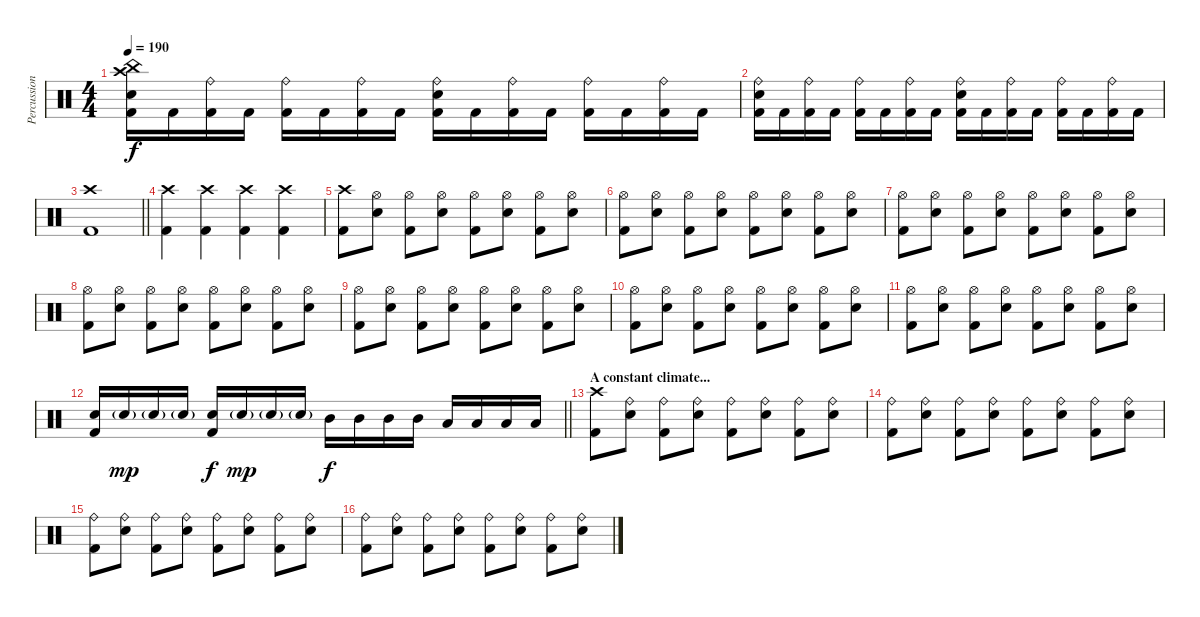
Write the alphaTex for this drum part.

\track ("Percussion" "Percussion") {instrument percussion}
\staff {score}
\articulation defaults
\ts (4 4)
\tempo 190
\clef neutral
\ks c
("China (hit)" "Crash high (hit)" "Snare (hit) 2" "Kick (hit) 2").16{dy f} "Kick (hit) 2".16 ("Ride (bell)" "Kick (hit) 2").16 "Kick (hit) 2".16 ("Ride (bell)" "Kick (hit) 2").16 "Kick (hit) 2".16 ("Ride (bell)" "Kick (hit) 2").16 "Kick (hit) 2".16 ("Ride (bell)" "Snare (hit) 2" "Kick (hit) 2").16 "Kick (hit) 2".16 ("Ride (bell)" "Kick (hit) 2").16 "Kick (hit) 2".16 ("Ride (bell)" "Kick (hit) 2").16 "Kick (hit) 2".16 ("Ride (bell)" "Kick (hit) 2").16 "Kick (hit) 2".16 |
("Ride (bell)" "Snare (hit) 2" "Kick (hit) 2").16 "Kick (hit) 2".16 ("Ride (bell)" "Kick (hit) 2").16 "Kick (hit) 2".16 ("Ride (bell)" "Kick (hit) 2").16 "Kick (hit) 2".16 ("Ride (bell)" "Kick (hit) 2").16 "Kick (hit) 2".16 ("Ride (bell)" "Snare (hit) 2" "Kick (hit) 2").16 "Kick (hit) 2".16 ("Ride (bell)" "Kick (hit) 2").16 "Kick (hit) 2".16 ("Ride (bell)" "Kick (hit) 2").16 "Kick (hit) 2".16 ("Ride (bell)" "Kick (hit) 2").16 "Kick (hit) 2".16 |
\barLineRight lightlight
("Crash high (hit)" "Kick (hit) 2").1 |
("Crash high (hit)" "Kick (hit) 2").4 ("Crash high (hit)" "Kick (hit) 2").4 ("Crash high (hit)" "Kick (hit) 2").4 ("Crash high (hit)" "Kick (hit) 2").4 |
("Crash high (hit)" "Kick (hit) 2").8 ("Hi-Hat (open)" "Snare (hit) 2").8 ("Hi-Hat (open)" "Kick (hit) 2").8 ("Hi-Hat (open)" "Snare (hit) 2").8 ("Hi-Hat (open)" "Kick (hit) 2").8 ("Hi-Hat (open)" "Snare (hit) 2").8 ("Hi-Hat (open)" "Kick (hit) 2").8 ("Hi-Hat (open)" "Snare (hit) 2").8 |
("Hi-Hat (open)" "Kick (hit) 2").8 ("Hi-Hat (open)" "Snare (hit) 2").8 ("Hi-Hat (open)" "Kick (hit) 2").8 ("Hi-Hat (open)" "Snare (hit) 2").8 ("Hi-Hat (open)" "Kick (hit) 2").8 ("Hi-Hat (open)" "Snare (hit) 2").8 ("Hi-Hat (open)" "Kick (hit) 2").8 ("Hi-Hat (open)" "Snare (hit) 2").8 |
("Hi-Hat (open)" "Kick (hit) 2").8 ("Hi-Hat (open)" "Snare (hit) 2").8 ("Hi-Hat (open)" "Kick (hit) 2").8 ("Hi-Hat (open)" "Snare (hit) 2").8 ("Hi-Hat (open)" "Kick (hit) 2").8 ("Hi-Hat (open)" "Snare (hit) 2").8 ("Hi-Hat (open)" "Kick (hit) 2").8 ("Hi-Hat (open)" "Snare (hit) 2").8 |
("Hi-Hat (open)" "Kick (hit) 2").8 ("Hi-Hat (open)" "Snare (hit) 2").8 ("Hi-Hat (open)" "Kick (hit) 2").8 ("Hi-Hat (open)" "Snare (hit) 2").8 ("Hi-Hat (open)" "Kick (hit) 2").8 ("Hi-Hat (open)" "Snare (hit) 2").8 ("Hi-Hat (open)" "Kick (hit) 2").8 ("Hi-Hat (open)" "Snare (hit) 2").8 |
("Hi-Hat (open)" "Kick (hit) 2").8 ("Hi-Hat (open)" "Snare (hit) 2").8 ("Hi-Hat (open)" "Kick (hit) 2").8 ("Hi-Hat (open)" "Snare (hit) 2").8 ("Hi-Hat (open)" "Kick (hit) 2").8 ("Hi-Hat (open)" "Snare (hit) 2").8 ("Hi-Hat (open)" "Kick (hit) 2").8 ("Hi-Hat (open)" "Snare (hit) 2").8 |
("Hi-Hat (open)" "Kick (hit) 2").8 ("Hi-Hat (open)" "Snare (hit) 2").8 ("Hi-Hat (open)" "Kick (hit) 2").8 ("Hi-Hat (open)" "Snare (hit) 2").8 ("Hi-Hat (open)" "Kick (hit) 2").8 ("Hi-Hat (open)" "Snare (hit) 2").8 ("Hi-Hat (open)" "Kick (hit) 2").8 ("Hi-Hat (open)" "Snare (hit) 2").8 |
("Hi-Hat (open)" "Kick (hit) 2").8 ("Hi-Hat (open)" "Snare (hit) 2").8 ("Hi-Hat (open)" "Kick (hit) 2").8 ("Hi-Hat (open)" "Snare (hit) 2").8 ("Hi-Hat (open)" "Kick (hit) 2").8 ("Hi-Hat (open)" "Snare (hit) 2").8 ("Hi-Hat (open)" "Kick (hit) 2").8 ("Hi-Hat (open)" "Snare (hit) 2").8 |
\barLineRight lightlight
("Snare (hit) 2" "Kick (hit) 2").16 "Snare (hit) 2"{g}.16{dy mp} "Snare (hit) 2"{g}.16 "Snare (hit) 2"{g}.16 ("Snare (hit) 2" "Kick (hit) 2").16{dy f} "Snare (hit) 2"{g}.16{dy mp} "Snare (hit) 2"{g}.16 "Snare (hit) 2"{g}.16 "Mid Tom (hit)".16{dy f} "Mid Tom (hit)".16 "Mid Tom (hit)".16 "Mid Tom (hit)".16 "Low Tom (hit)".16 "Low Tom (hit)".16 "Low Tom (hit)".16 "Low Tom (hit)".16 |
\section ("" "A constant climate...")
("Crash high (hit)" "Kick (hit) 2").8 ("Ride (bell)" "Snare (hit) 2").8 ("Ride (bell)" "Kick (hit) 2").8 ("Ride (bell)" "Snare (hit) 2").8 ("Ride (bell)" "Kick (hit) 2").8 ("Ride (bell)" "Snare (hit) 2").8 ("Ride (bell)" "Kick (hit) 2").8 ("Ride (bell)" "Snare (hit) 2").8 |
("Ride (bell)" "Kick (hit) 2").8 ("Ride (bell)" "Snare (hit) 2").8 ("Ride (bell)" "Kick (hit) 2").8 ("Ride (bell)" "Snare (hit) 2").8 ("Ride (bell)" "Kick (hit) 2").8 ("Ride (bell)" "Snare (hit) 2").8 ("Ride (bell)" "Kick (hit) 2").8 ("Ride (bell)" "Snare (hit) 2").8 |
("Ride (bell)" "Kick (hit) 2").8 ("Ride (bell)" "Snare (hit) 2").8 ("Ride (bell)" "Kick (hit) 2").8 ("Ride (bell)" "Snare (hit) 2").8 ("Ride (bell)" "Kick (hit) 2").8 ("Ride (bell)" "Snare (hit) 2").8 ("Ride (bell)" "Kick (hit) 2").8 ("Ride (bell)" "Snare (hit) 2").8 |
("Ride (bell)" "Kick (hit) 2").8 ("Ride (bell)" "Snare (hit) 2").8 ("Ride (bell)" "Kick (hit) 2").8 ("Ride (bell)" "Snare (hit) 2").8 ("Ride (bell)" "Kick (hit) 2").8 ("Ride (bell)" "Snare (hit) 2").8 ("Ride (bell)" "Kick (hit) 2").8 ("Ride (bell)" "Snare (hit) 2").8
